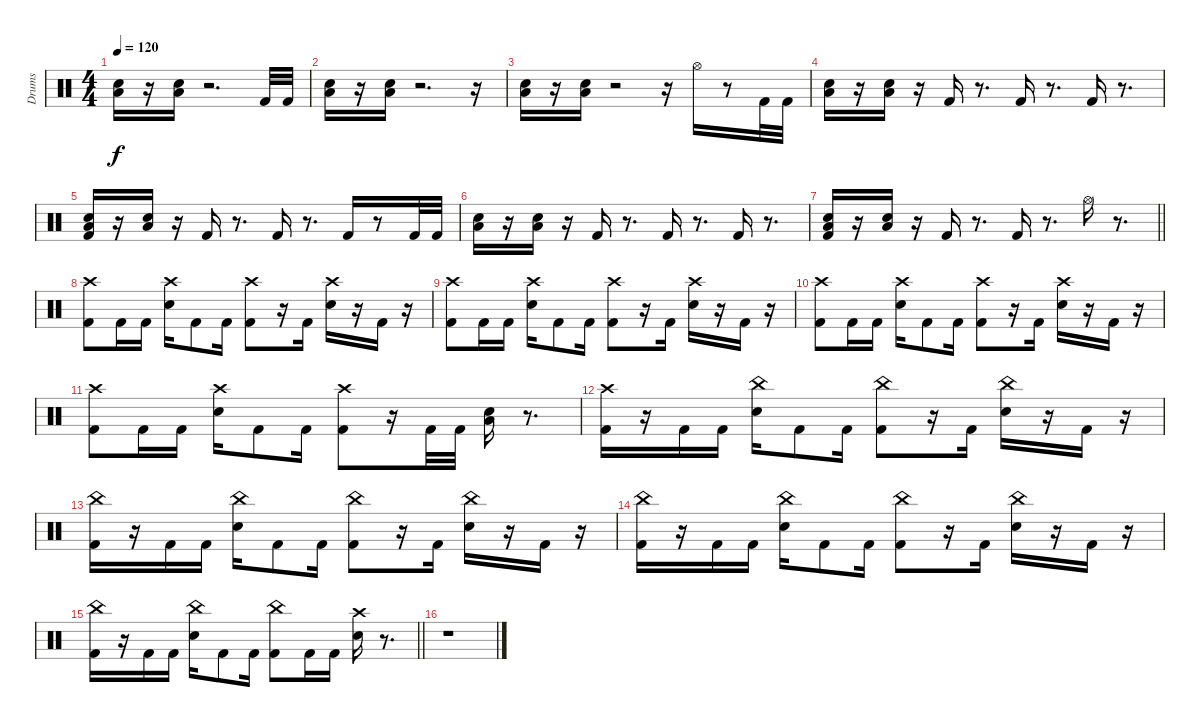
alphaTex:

\track ("Drums" "Drums") {instrument percussion}
\staff {score}
\articulation defaults
\ts (4 4)
\tempo 120
\clef neutral
\ks c
("Snare (hit) 2" "Low Floor Tom (hit)").16{dy f} r.16 ("Snare (hit) 2" "Low Floor Tom (hit)").16 r.2{d} "Kick (hit) 2".32 "Kick (hit) 2".32 |
("Snare (hit) 2" "Low Floor Tom (hit)").16 r.16 ("Snare (hit) 2" "Low Floor Tom (hit)").16 r.2{d} r.16 |
("Snare (hit) 2" "Low Floor Tom (hit)").16 r.16 ("Snare (hit) 2" "Low Floor Tom (hit)").16 r.2 r.16 "Hi-Hat (open)".16 r.8 "Kick (hit) 2".32 "Kick (hit) 2".32 |
("Snare (hit) 2" "Low Floor Tom (hit)").16 r.16 ("Snare (hit) 2" "Low Floor Tom (hit)").16 r.16 "Kick (hit) 2".16 r.8{d} "Kick (hit) 2".16 r.8{d} "Kick (hit) 2".16 r.8{d} |
("Kick (hit) 2" "Snare (hit) 2" "Low Floor Tom (hit)").16 r.16 ("Snare (hit) 2" "Low Floor Tom (hit)").16 r.16 "Kick (hit) 2".16 r.8{d} "Kick (hit) 2".16 r.8{d} "Kick (hit) 2".16 r.8 "Kick (hit) 2".32 "Kick (hit) 2".32 |
("Snare (hit) 2" "Low Floor Tom (hit)").16 r.16 ("Snare (hit) 2" "Low Floor Tom (hit)").16 r.16 "Kick (hit) 2".16 r.8{d} "Kick (hit) 2".16 r.8{d} "Kick (hit) 2".16 r.8{d} |
\barLineRight lightlight
("Kick (hit) 2" "Snare (hit) 2" "Low Floor Tom (hit)").16 r.16 ("Snare (hit) 2" "Low Floor Tom (hit)").16 r.16 "Kick (hit) 2".16 r.8{d} "Kick (hit) 2".16 r.8{d} "Hi-Hat (open)".16 r.8{d} |
\section ("" " ")
("Kick (hit) 2" "Crash high (hit)").8 "Kick (hit) 2".16 "Kick (hit) 2".16 ("Snare (hit) 2" "Crash high (hit)").16 "Kick (hit) 2".8 "Kick (hit) 2".16 ("Kick (hit) 2" "Crash high (hit)").8 r.16 "Kick (hit) 2".16 ("Snare (hit) 2" "Crash high (hit)").16 r.16 "Kick (hit) 2".16 r.16 |
("Kick (hit) 2" "Crash high (hit)").8 "Kick (hit) 2".16 "Kick (hit) 2".16 ("Snare (hit) 2" "Crash high (hit)").16 "Kick (hit) 2".8 "Kick (hit) 2".16 ("Kick (hit) 2" "Crash high (hit)").8 r.16 "Kick (hit) 2".16 ("Snare (hit) 2" "Crash high (hit)").16 r.16 "Kick (hit) 2".16 r.16 |
("Kick (hit) 2" "Crash high (hit)").8 "Kick (hit) 2".16 "Kick (hit) 2".16 ("Snare (hit) 2" "Crash high (hit)").16 "Kick (hit) 2".8 "Kick (hit) 2".16 ("Kick (hit) 2" "Crash high (hit)").8 r.16 "Kick (hit) 2".16 ("Snare (hit) 2" "Crash high (hit)").16 r.16 "Kick (hit) 2".16 r.16 |
("Kick (hit) 2" "Crash high (hit)").8 "Kick (hit) 2".16 "Kick (hit) 2".16 ("Snare (hit) 2" "Crash high (hit)").16 "Kick (hit) 2".8 "Kick (hit) 2".16 ("Kick (hit) 2" "Crash high (hit)").8 r.16 "Kick (hit) 2".32 "Kick (hit) 2".32 ("Snare (hit) 2" "Low Floor Tom (hit)").16 r.8{d} |
("Kick (hit) 2" "Crash high (hit)").16 r.16 "Kick (hit) 2".16 "Kick (hit) 2".16 ("Snare (hit) 2" "China (hit)").16 "Kick (hit) 2".8 "Kick (hit) 2".16 ("Kick (hit) 2" "China (hit)").8 r.16 "Kick (hit) 2".16 ("Snare (hit) 2" "China (hit)").16 r.16 "Kick (hit) 2".16 r.16 |
("Kick (hit) 2" "China (hit)").16 r.16 "Kick (hit) 2".16 "Kick (hit) 2".16 ("Snare (hit) 2" "China (hit)").16 "Kick (hit) 2".8 "Kick (hit) 2".16 ("Kick (hit) 2" "China (hit)").8 r.16 "Kick (hit) 2".16 ("Snare (hit) 2" "China (hit)").16 r.16 "Kick (hit) 2".16 r.16 |
("Kick (hit) 2" "China (hit)").16 r.16 "Kick (hit) 2".16 "Kick (hit) 2".16 ("Snare (hit) 2" "China (hit)").16 "Kick (hit) 2".8 "Kick (hit) 2".16 ("Kick (hit) 2" "China (hit)").8 r.16 "Kick (hit) 2".16 ("Snare (hit) 2" "China (hit)").16 r.16 "Kick (hit) 2".16 r.16 |
\barLineRight lightlight
("Kick (hit) 2" "China (hit)").16 r.16 "Kick (hit) 2".16 "Kick (hit) 2".16 ("Snare (hit) 2" "China (hit)").16 "Kick (hit) 2".8 "Kick (hit) 2".16 ("Kick (hit) 2" "China (hit)").8 "Kick (hit) 2".16 "Kick (hit) 2".16 ("Snare (hit) 2" "Crash high (hit)").16 r.8{d} |
\section ("" " ")
r.1
